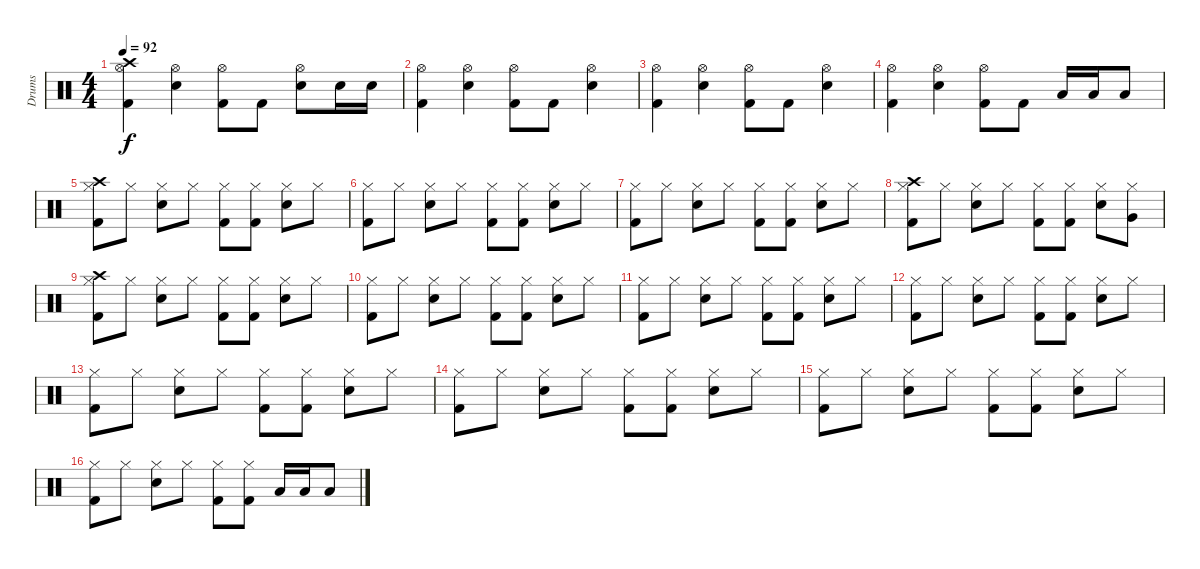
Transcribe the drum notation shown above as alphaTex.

\track ("Drums" "Drums") {instrument percussion}
\staff {score}
\articulation defaults
\ts (4 4)
\tempo 92
\clef neutral
\ks c
("Kick (hit) 2" "Hi-Hat (open)" "Crash high (hit)").4{dy f} ("Electric Snare (hit)" "Hi-Hat (open)").4 ("Kick (hit) 2" "Hi-Hat (open)").8 "Kick (hit) 2".8 ("Electric Snare (hit)" "Hi-Hat (open)").8 "Electric Snare (hit)".16 "Electric Snare (hit)".16 |
("Kick (hit) 2" "Hi-Hat (open)").4 ("Electric Snare (hit)" "Hi-Hat (open)").4 ("Kick (hit) 2" "Hi-Hat (open)").8 "Kick (hit) 2".8 ("Electric Snare (hit)" "Hi-Hat (open)").4 |
("Kick (hit) 2" "Hi-Hat (open)").4 ("Electric Snare (hit)" "Hi-Hat (open)").4 ("Kick (hit) 2" "Hi-Hat (open)").8 "Kick (hit) 2".8 ("Electric Snare (hit)" "Hi-Hat (open)").4 |
("Kick (hit) 2" "Hi-Hat (open)").4 ("Electric Snare (hit)" "Hi-Hat (open)").4 ("Kick (hit) 2" "Hi-Hat (open)").8 "Kick (hit) 2".8 "Low Floor Tom (hit)".16 "Low Floor Tom (hit)".16 "Low Floor Tom (hit)".8 |
("Kick (hit) 2" "Hi-Hat (closed)" "Crash high (hit)").8 "Hi-Hat (closed)".8 ("Electric Snare (hit)" "Hi-Hat (closed)").8 "Hi-Hat (closed)".8 ("Kick (hit) 2" "Hi-Hat (closed)").8 ("Kick (hit) 2" "Hi-Hat (closed)").8 ("Electric Snare (hit)" "Hi-Hat (closed)").8 "Hi-Hat (closed)".8 |
("Kick (hit) 2" "Hi-Hat (closed)").8 "Hi-Hat (closed)".8 ("Electric Snare (hit)" "Hi-Hat (closed)").8 "Hi-Hat (closed)".8 ("Kick (hit) 2" "Hi-Hat (closed)").8 ("Kick (hit) 2" "Hi-Hat (closed)").8 ("Electric Snare (hit)" "Hi-Hat (closed)").8 "Hi-Hat (closed)".8 |
("Kick (hit) 2" "Hi-Hat (closed)").8 "Hi-Hat (closed)".8 ("Electric Snare (hit)" "Hi-Hat (closed)").8 "Hi-Hat (closed)".8 ("Kick (hit) 2" "Hi-Hat (closed)").8 ("Kick (hit) 2" "Hi-Hat (closed)").8 ("Electric Snare (hit)" "Hi-Hat (closed)").8 "Hi-Hat (closed)".8 |
("Kick (hit) 2" "Hi-Hat (closed)" "Crash high (hit)").8 "Hi-Hat (closed)".8 ("Electric Snare (hit)" "Hi-Hat (closed)").8 "Hi-Hat (closed)".8 ("Kick (hit) 2" "Hi-Hat (closed)").8 ("Kick (hit) 2" "Hi-Hat (closed)").8 ("Electric Snare (hit)" "Hi-Hat (closed)").8 ("Hi-Hat (closed)" "Very Low Tom (hit)").8 |
("Kick (hit) 2" "Hi-Hat (closed)" "Crash high (hit)").8 "Hi-Hat (closed)".8 ("Electric Snare (hit)" "Hi-Hat (closed)").8 "Hi-Hat (closed)".8 ("Kick (hit) 2" "Hi-Hat (closed)").8 ("Kick (hit) 2" "Hi-Hat (closed)").8 ("Electric Snare (hit)" "Hi-Hat (closed)").8 "Hi-Hat (closed)".8 |
("Kick (hit) 2" "Hi-Hat (closed)").8 "Hi-Hat (closed)".8 ("Electric Snare (hit)" "Hi-Hat (closed)").8 "Hi-Hat (closed)".8 ("Kick (hit) 2" "Hi-Hat (closed)").8 ("Kick (hit) 2" "Hi-Hat (closed)").8 ("Electric Snare (hit)" "Hi-Hat (closed)").8 "Hi-Hat (closed)".8 |
("Kick (hit) 2" "Hi-Hat (closed)").8 "Hi-Hat (closed)".8 ("Electric Snare (hit)" "Hi-Hat (closed)").8 "Hi-Hat (closed)".8 ("Kick (hit) 2" "Hi-Hat (closed)").8 ("Kick (hit) 2" "Hi-Hat (closed)").8 ("Electric Snare (hit)" "Hi-Hat (closed)").8 "Hi-Hat (closed)".8 |
("Kick (hit) 2" "Hi-Hat (closed)").8 "Hi-Hat (closed)".8 ("Electric Snare (hit)" "Hi-Hat (closed)").8 "Hi-Hat (closed)".8 ("Kick (hit) 2" "Hi-Hat (closed)").8 ("Kick (hit) 2" "Hi-Hat (closed)").8 ("Electric Snare (hit)" "Hi-Hat (closed)").8 "Hi-Hat (closed)".8 |
("Kick (hit) 2" "Hi-Hat (closed)").8 "Hi-Hat (closed)".8 ("Electric Snare (hit)" "Hi-Hat (closed)").8 "Hi-Hat (closed)".8 ("Kick (hit) 2" "Hi-Hat (closed)").8 ("Kick (hit) 2" "Hi-Hat (closed)").8 ("Electric Snare (hit)" "Hi-Hat (closed)").8 "Hi-Hat (closed)".8 |
("Kick (hit) 2" "Hi-Hat (closed)").8 "Hi-Hat (closed)".8 ("Electric Snare (hit)" "Hi-Hat (closed)").8 "Hi-Hat (closed)".8 ("Kick (hit) 2" "Hi-Hat (closed)").8 ("Kick (hit) 2" "Hi-Hat (closed)").8 ("Electric Snare (hit)" "Hi-Hat (closed)").8 "Hi-Hat (closed)".8 |
("Kick (hit) 2" "Hi-Hat (closed)").8 "Hi-Hat (closed)".8 ("Electric Snare (hit)" "Hi-Hat (closed)").8 "Hi-Hat (closed)".8 ("Kick (hit) 2" "Hi-Hat (closed)").8 ("Kick (hit) 2" "Hi-Hat (closed)").8 ("Electric Snare (hit)" "Hi-Hat (closed)").8 "Hi-Hat (closed)".8 |
("Kick (hit) 2" "Hi-Hat (closed)").8 "Hi-Hat (closed)".8 ("Electric Snare (hit)" "Hi-Hat (closed)").8 "Hi-Hat (closed)".8 ("Kick (hit) 2" "Hi-Hat (closed)").8 ("Kick (hit) 2" "Hi-Hat (closed)").8 "Low Tom (hit)".16 "Low Tom (hit)".16 "Low Tom (hit)".8
